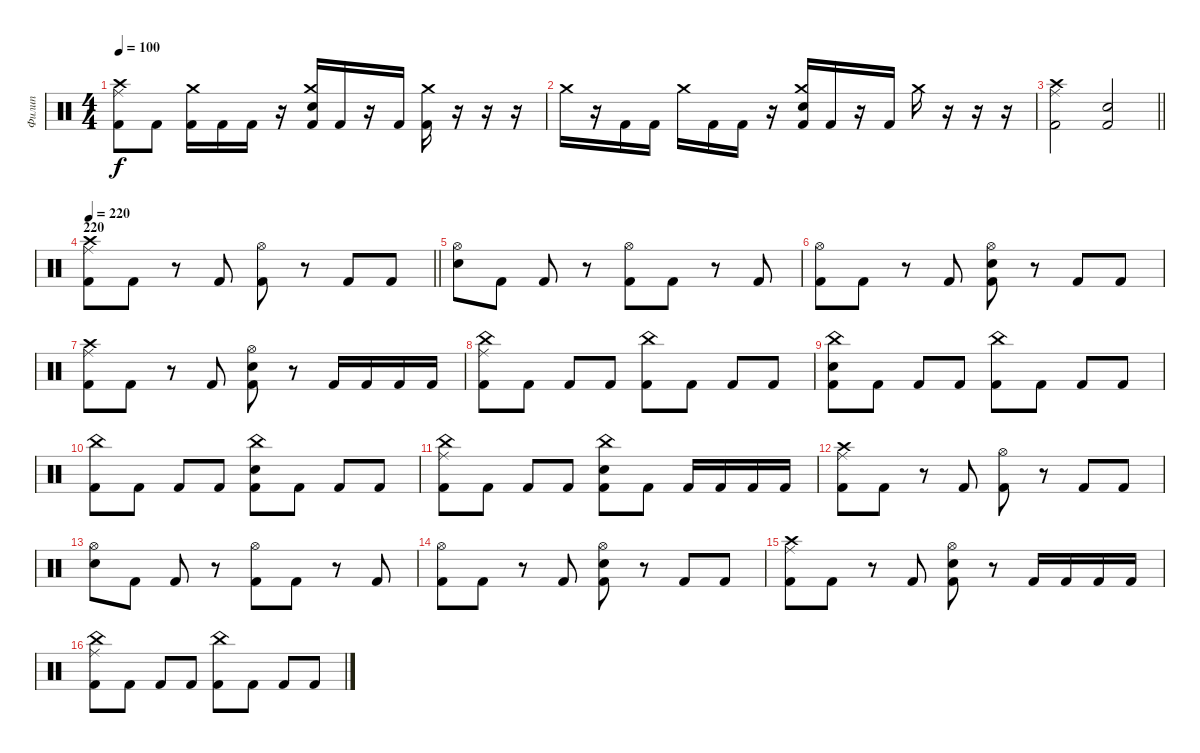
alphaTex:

\track ("Филип" "Филип") {instrument percussion}
\staff {score}
\articulation defaults
\ts (4 4)
\tempo 100
\clef neutral
\ks c
("Ride (middle)" "Crash high (hit)" "Kick (hit) 2").8{dy f} "Kick (hit) 2".8 ("Crash medium (hit)" "Kick (hit) 2").16 "Kick (hit) 2".16 "Kick (hit) 2".16 r.16 ("Crash medium (hit)" "Electric Snare (hit)" "Kick (hit) 2").16 "Kick (hit) 2".16 r.16 "Kick (hit) 2".16 ("Crash medium (hit)" "Kick (hit) 2").16 r.16 r.16 r.16 |
"Crash medium (hit)".16 r.16 "Kick (hit) 2".16 "Kick (hit) 2".16 "Crash medium (hit)".16 "Kick (hit) 2".16 "Kick (hit) 2".16 r.16 ("Crash medium (hit)" "Electric Snare (hit)" "Kick (hit) 2").16 "Kick (hit) 2".16 r.16 "Kick (hit) 2".16 "Crash medium (hit)".16 r.16 r.16 r.16 |
\barLineRight lightlight
("Ride (middle)" "Crash high (hit)" "Kick (hit) 2").2 ("Snare (hit) 2" "Kick (hit) 2").2 |
\section ("" "220")
\tempo 220
\barLineRight lightlight
("Ride (middle)" "Crash high (hit)" "Kick (hit) 2").8 "Kick (hit) 2".8 r.8 "Kick (hit) 2".8 ("Hi-Hat (open)" "Kick (hit) 2").8 r.8 "Kick (hit) 2".8 "Kick (hit) 2".8 |
\section ("" "")
("Hi-Hat (open)" "Electric Snare (hit)").8 "Kick (hit) 2".8 "Kick (hit) 2".8 r.8 ("Hi-Hat (open)" "Kick (hit) 2").8 "Kick (hit) 2".8 r.8 "Kick (hit) 2".8 |
("Hi-Hat (open)" "Kick (hit) 2").8 "Kick (hit) 2".8 r.8 "Kick (hit) 2".8 ("Hi-Hat (open)" "Electric Snare (hit)" "Kick (hit) 2").8 r.8 "Kick (hit) 2".8 "Kick (hit) 2".8 |
("Ride (middle)" "Crash high (hit)" "Kick (hit) 2").8 "Kick (hit) 2".8 r.8 "Kick (hit) 2".8 ("Hi-Hat (open)" "Electric Snare (hit)" "Kick (hit) 2").8 r.8 "Kick (hit) 2".16 "Kick (hit) 2".16 "Kick (hit) 2".16 "Kick (hit) 2".16 |
("Ride (middle)" "China (hit)" "Kick (hit) 2").8 "Kick (hit) 2".8 "Kick (hit) 2".8 "Kick (hit) 2".8 ("China (hit)" "Kick (hit) 2").8 "Kick (hit) 2".8 "Kick (hit) 2".8 "Kick (hit) 2".8 |
("Kick (hit) 2" "China (hit)" "Electric Snare (hit)").8 "Kick (hit) 2".8 "Kick (hit) 2".8 "Kick (hit) 2".8 ("China (hit)" "Kick (hit) 2").8 "Kick (hit) 2".8 "Kick (hit) 2".8 "Kick (hit) 2".8 |
("China (hit)" "Kick (hit) 2").8 "Kick (hit) 2".8 "Kick (hit) 2".8 "Kick (hit) 2".8 ("China (hit)" "Electric Snare (hit)" "Kick (hit) 2").8 "Kick (hit) 2".8 "Kick (hit) 2".8 "Kick (hit) 2".8 |
("Ride (middle)" "China (hit)" "Kick (hit) 2").8 "Kick (hit) 2".8 "Kick (hit) 2".8 "Kick (hit) 2".8 ("China (hit)" "Electric Snare (hit)" "Kick (hit) 2").8 "Kick (hit) 2".8 "Kick (hit) 2".16 "Kick (hit) 2".16 "Kick (hit) 2".16 "Kick (hit) 2".16 |
("Ride (middle)" "Crash high (hit)" "Kick (hit) 2").8 "Kick (hit) 2".8 r.8 "Kick (hit) 2".8 ("Hi-Hat (open)" "Kick (hit) 2").8 r.8 "Kick (hit) 2".8 "Kick (hit) 2".8 |
("Hi-Hat (open)" "Electric Snare (hit)").8 "Kick (hit) 2".8 "Kick (hit) 2".8 r.8 ("Hi-Hat (open)" "Kick (hit) 2").8 "Kick (hit) 2".8 r.8 "Kick (hit) 2".8 |
("Hi-Hat (open)" "Kick (hit) 2").8 "Kick (hit) 2".8 r.8 "Kick (hit) 2".8 ("Hi-Hat (open)" "Electric Snare (hit)" "Kick (hit) 2").8 r.8 "Kick (hit) 2".8 "Kick (hit) 2".8 |
("Ride (middle)" "Crash high (hit)" "Kick (hit) 2").8 "Kick (hit) 2".8 r.8 "Kick (hit) 2".8 ("Hi-Hat (open)" "Electric Snare (hit)" "Kick (hit) 2").8 r.8 "Kick (hit) 2".16 "Kick (hit) 2".16 "Kick (hit) 2".16 "Kick (hit) 2".16 |
("Ride (middle)" "China (hit)" "Kick (hit) 2").8 "Kick (hit) 2".8 "Kick (hit) 2".8 "Kick (hit) 2".8 ("China (hit)" "Kick (hit) 2").8 "Kick (hit) 2".8 "Kick (hit) 2".8 "Kick (hit) 2".8
